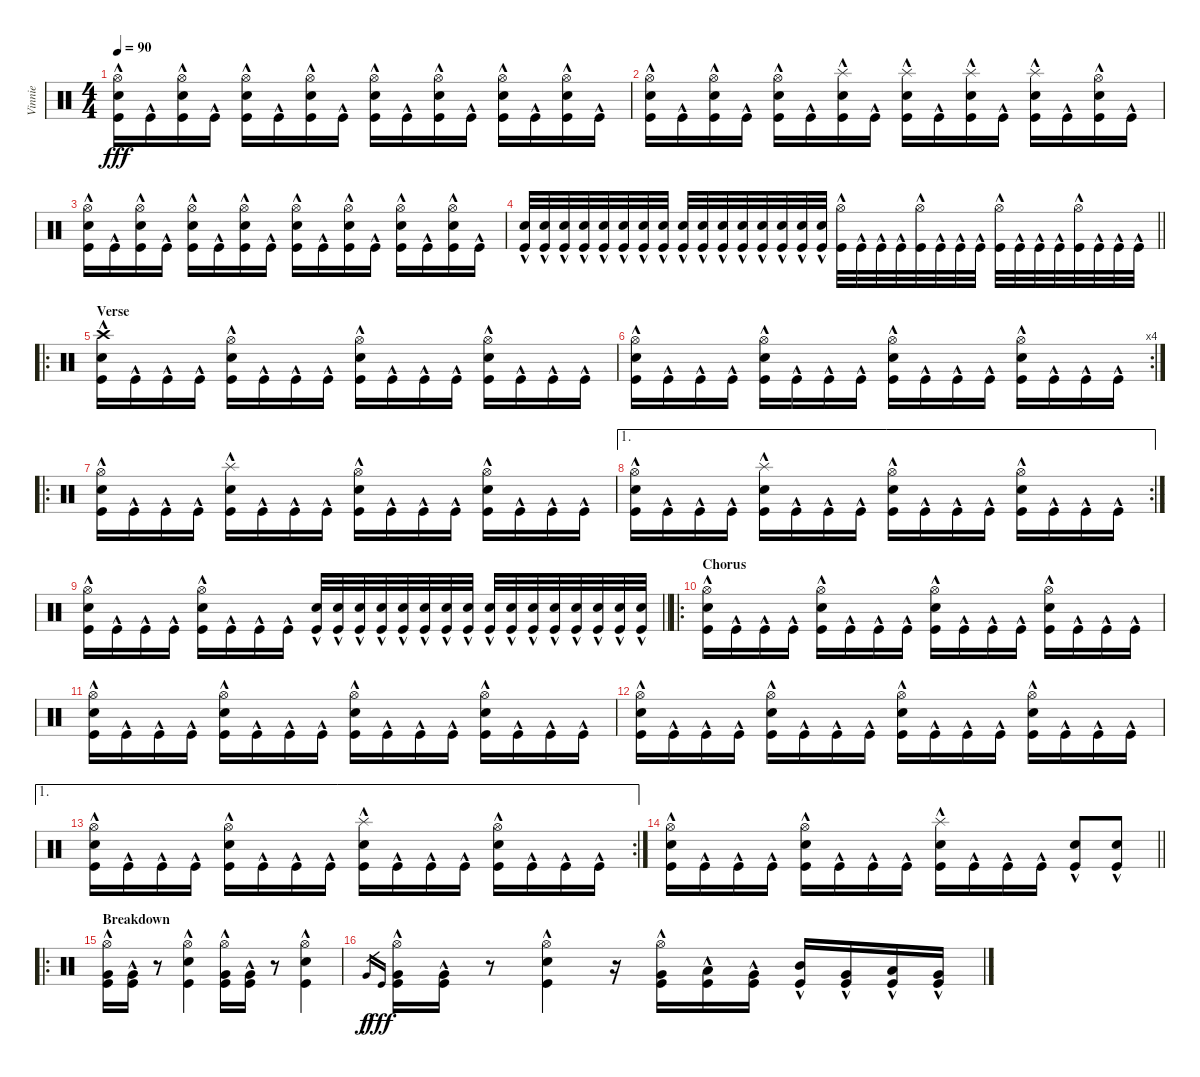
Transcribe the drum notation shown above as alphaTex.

\track ("Vinnie" "Vinnie") {instrument percussion}
\staff {score}
\articulation defaults
\ts (4 4)
\tempo 90
\clef neutral
\ks c
("Hi-Hat (open)" "Electric Snare (hit)" "Kick (hit)"{hac}).16{dy fff} "Kick (hit)"{hac}.16 ("Hi-Hat (open)" "Electric Snare (hit)" "Kick (hit)"{hac}).16 "Kick (hit)"{hac}.16 ("Hi-Hat (open)" "Electric Snare (hit)" "Kick (hit)"{hac}).16 "Kick (hit)"{hac}.16 ("Hi-Hat (open)" "Electric Snare (hit)" "Kick (hit)"{hac}).16 "Kick (hit)"{hac}.16 ("Hi-Hat (open)" "Electric Snare (hit)" "Kick (hit)"{hac}).16 "Kick (hit)"{hac}.16 ("Hi-Hat (open)" "Electric Snare (hit)" "Kick (hit)"{hac}).16 "Kick (hit)"{hac}.16 ("Hi-Hat (open)" "Electric Snare (hit)" "Kick (hit)"{hac}).16 "Kick (hit)"{hac}.16 ("Hi-Hat (open)" "Electric Snare (hit)" "Kick (hit)"{hac}).16 "Kick (hit)"{hac}.16 |
("Hi-Hat (open)" "Electric Snare (hit)" "Kick (hit)"{hac}).16 "Kick (hit)"{hac}.16 ("Hi-Hat (open)" "Electric Snare (hit)" "Kick (hit)"{hac}).16 "Kick (hit)"{hac}.16 ("Hi-Hat (open)" "Electric Snare (hit)" "Kick (hit)"{hac}).16 "Kick (hit)"{hac}.16 ("Splash (hit)"{hac} "Electric Snare (hit)" "Kick (hit)"{hac}).16 "Kick (hit)"{hac}.16 ("Splash (hit)"{hac} "Electric Snare (hit)" "Kick (hit)"{hac}).16 "Kick (hit)"{hac}.16 ("Splash (hit)"{hac} "Electric Snare (hit)" "Kick (hit)"{hac}).16 "Kick (hit)"{hac}.16 ("Splash (hit)"{hac} "Electric Snare (hit)" "Kick (hit)"{hac}).16 "Kick (hit)"{hac}.16 ("Hi-Hat (open)" "Electric Snare (hit)" "Kick (hit)"{hac}).16 "Kick (hit)"{hac}.16 |
("Hi-Hat (open)" "Electric Snare (hit)" "Kick (hit)"{hac}).16 "Kick (hit)"{hac}.16 ("Hi-Hat (open)" "Electric Snare (hit)" "Kick (hit)"{hac}).16 "Kick (hit)"{hac}.16 ("Hi-Hat (open)" "Electric Snare (hit)" "Kick (hit)"{hac}).16 "Kick (hit)"{hac}.16 ("Hi-Hat (open)" "Electric Snare (hit)" "Kick (hit)"{hac}).16 "Kick (hit)"{hac}.16 ("Hi-Hat (open)" "Electric Snare (hit)" "Kick (hit)"{hac}).16 "Kick (hit)"{hac}.16 ("Hi-Hat (open)" "Electric Snare (hit)" "Kick (hit)"{hac}).16 "Kick (hit)"{hac}.16 ("Hi-Hat (open)" "Electric Snare (hit)" "Kick (hit)"{hac}).16 "Kick (hit)"{hac}.16 ("Hi-Hat (open)" "Electric Snare (hit)" "Kick (hit)"{hac}).16 "Kick (hit)"{hac}.16 |
\barLineRight lightlight
("Electric Snare (hit)" "Kick (hit)"{hac}).32 ("Electric Snare (hit)" "Kick (hit)"{hac}).32 ("Electric Snare (hit)" "Kick (hit)"{hac}).32 ("Electric Snare (hit)" "Kick (hit)"{hac}).32 ("Electric Snare (hit)" "Kick (hit)"{hac}).32 ("Electric Snare (hit)" "Kick (hit)"{hac}).32 ("Electric Snare (hit)" "Kick (hit)"{hac}).32 ("Electric Snare (hit)" "Kick (hit)"{hac}).32 ("Electric Snare (hit)" "Kick (hit)"{hac}).32 ("Electric Snare (hit)" "Kick (hit)"{hac}).32 ("Electric Snare (hit)" "Kick (hit)"{hac}).32 ("Electric Snare (hit)" "Kick (hit)"{hac}).32 ("Electric Snare (hit)" "Kick (hit)"{hac}).32 ("Electric Snare (hit)" "Kick (hit)"{hac}).32 ("Electric Snare (hit)" "Kick (hit)"{hac}).32 ("Electric Snare (hit)" "Kick (hit)"{hac}).32 ("Hi-Hat (open)" "Kick (hit)"{hac}).32 "Kick (hit)"{hac}.32 "Kick (hit)"{hac}.32 "Kick (hit)"{hac}.32 ("Hi-Hat (open)" "Kick (hit)"{hac}).32 "Kick (hit)"{hac}.32 "Kick (hit)"{hac}.32 "Kick (hit)"{hac}.32 ("Hi-Hat (open)" "Kick (hit)"{hac}).32 "Kick (hit)"{hac}.32 "Kick (hit)"{hac}.32 "Kick (hit)"{hac}.32 ("Hi-Hat (open)" "Kick (hit)"{hac}).32 "Kick (hit)"{hac}.32 "Kick (hit)"{hac}.32 "Kick (hit)"{hac}.32 |
\ro
\section ("" "Verse")
("Crash high (hit)"{hac} "Electric Snare (hit)" "Kick (hit)"{hac}).16 "Kick (hit)"{hac}.16 "Kick (hit)"{hac}.16 "Kick (hit)"{hac}.16 ("Hi-Hat (open)" "Electric Snare (hit)" "Kick (hit)"{hac}).16 "Kick (hit)"{hac}.16 "Kick (hit)"{hac}.16 "Kick (hit)"{hac}.16 ("Hi-Hat (open)" "Electric Snare (hit)" "Kick (hit)"{hac}).16 "Kick (hit)"{hac}.16 "Kick (hit)"{hac}.16 "Kick (hit)"{hac}.16 ("Hi-Hat (open)" "Electric Snare (hit)" "Kick (hit)"{hac}).16 "Kick (hit)"{hac}.16 "Kick (hit)"{hac}.16 "Kick (hit)"{hac}.16 |
\rc 4
("Hi-Hat (open)"{hac} "Electric Snare (hit)" "Kick (hit)"{hac}).16 "Kick (hit)"{hac}.16 "Kick (hit)"{hac}.16 "Kick (hit)"{hac}.16 ("Hi-Hat (open)" "Electric Snare (hit)" "Kick (hit)"{hac}).16 "Kick (hit)"{hac}.16 "Kick (hit)"{hac}.16 "Kick (hit)"{hac}.16 ("Hi-Hat (open)" "Electric Snare (hit)" "Kick (hit)"{hac}).16 "Kick (hit)"{hac}.16 "Kick (hit)"{hac}.16 "Kick (hit)"{hac}.16 ("Hi-Hat (open)" "Electric Snare (hit)" "Kick (hit)"{hac}).16 "Kick (hit)"{hac}.16 "Kick (hit)"{hac}.16 "Kick (hit)"{hac}.16 |
\ro
("Hi-Hat (open)"{hac} "Electric Snare (hit)" "Kick (hit)"{hac}).16 "Kick (hit)"{hac}.16 "Kick (hit)"{hac}.16 "Kick (hit)"{hac}.16 ("Splash (hit)"{hac} "Electric Snare (hit)" "Kick (hit)"{hac}).16 "Kick (hit)"{hac}.16 "Kick (hit)"{hac}.16 "Kick (hit)"{hac}.16 ("Hi-Hat (open)" "Electric Snare (hit)" "Kick (hit)"{hac}).16 "Kick (hit)"{hac}.16 "Kick (hit)"{hac}.16 "Kick (hit)"{hac}.16 ("Hi-Hat (open)" "Electric Snare (hit)" "Kick (hit)"{hac}).16 "Kick (hit)"{hac}.16 "Kick (hit)"{hac}.16 "Kick (hit)"{hac}.16 |
\ae 1
\rc 2
("Hi-Hat (open)"{hac} "Electric Snare (hit)" "Kick (hit)"{hac}).16 "Kick (hit)"{hac}.16 "Kick (hit)"{hac}.16 "Kick (hit)"{hac}.16 ("Splash (hit)"{hac} "Electric Snare (hit)" "Kick (hit)"{hac}).16 "Kick (hit)"{hac}.16 "Kick (hit)"{hac}.16 "Kick (hit)"{hac}.16 ("Hi-Hat (open)" "Electric Snare (hit)" "Kick (hit)"{hac}).16 "Kick (hit)"{hac}.16 "Kick (hit)"{hac}.16 "Kick (hit)"{hac}.16 ("Hi-Hat (open)" "Electric Snare (hit)" "Kick (hit)"{hac}).16 "Kick (hit)"{hac}.16 "Kick (hit)"{hac}.16 "Kick (hit)"{hac}.16 |
\barLineRight lightlight
("Hi-Hat (open)"{hac} "Electric Snare (hit)" "Kick (hit)"{hac}).16 "Kick (hit)"{hac}.16 "Kick (hit)"{hac}.16 "Kick (hit)"{hac}.16 ("Hi-Hat (open)"{hac} "Electric Snare (hit)" "Kick (hit)"{hac}).16 "Kick (hit)"{hac}.16 "Kick (hit)"{hac}.16 "Kick (hit)"{hac}.16 ("Electric Snare (hit)" "Kick (hit)"{hac}).32 ("Electric Snare (hit)" "Kick (hit)"{hac}).32 ("Electric Snare (hit)" "Kick (hit)"{hac}).32 ("Electric Snare (hit)" "Kick (hit)"{hac}).32 ("Electric Snare (hit)" "Kick (hit)"{hac}).32 ("Electric Snare (hit)" "Kick (hit)"{hac}).32 ("Electric Snare (hit)" "Kick (hit)"{hac}).32 ("Electric Snare (hit)" "Kick (hit)"{hac}).32 ("Electric Snare (hit)" "Kick (hit)"{hac}).32 ("Electric Snare (hit)" "Kick (hit)"{hac}).32 ("Electric Snare (hit)" "Kick (hit)"{hac}).32 ("Electric Snare (hit)" "Kick (hit)"{hac}).32 ("Electric Snare (hit)" "Kick (hit)"{hac}).32 ("Electric Snare (hit)" "Kick (hit)"{hac}).32 ("Electric Snare (hit)" "Kick (hit)"{hac}).32 ("Electric Snare (hit)" "Kick (hit)"{hac}).32 |
\ro
\section ("" "Chorus")
("Hi-Hat (open)"{hac} "Electric Snare (hit)" "Kick (hit)"{hac}).16 "Kick (hit)"{hac}.16 "Kick (hit)"{hac}.16 "Kick (hit)"{hac}.16 ("Hi-Hat (open)" "Electric Snare (hit)" "Kick (hit)"{hac}).16 "Kick (hit)"{hac}.16 "Kick (hit)"{hac}.16 "Kick (hit)"{hac}.16 ("Hi-Hat (open)" "Electric Snare (hit)" "Kick (hit)"{hac}).16 "Kick (hit)"{hac}.16 "Kick (hit)"{hac}.16 "Kick (hit)"{hac}.16 ("Hi-Hat (open)" "Electric Snare (hit)" "Kick (hit)"{hac}).16 "Kick (hit)"{hac}.16 "Kick (hit)"{hac}.16 "Kick (hit)"{hac}.16 |
("Hi-Hat (open)"{hac} "Electric Snare (hit)" "Kick (hit)"{hac}).16 "Kick (hit)"{hac}.16 "Kick (hit)"{hac}.16 "Kick (hit)"{hac}.16 ("Hi-Hat (open)" "Electric Snare (hit)" "Kick (hit)"{hac}).16 "Kick (hit)"{hac}.16 "Kick (hit)"{hac}.16 "Kick (hit)"{hac}.16 ("Hi-Hat (open)" "Electric Snare (hit)" "Kick (hit)"{hac}).16 "Kick (hit)"{hac}.16 "Kick (hit)"{hac}.16 "Kick (hit)"{hac}.16 ("Hi-Hat (open)" "Electric Snare (hit)" "Kick (hit)"{hac}).16 "Kick (hit)"{hac}.16 "Kick (hit)"{hac}.16 "Kick (hit)"{hac}.16 |
("Hi-Hat (open)"{hac} "Electric Snare (hit)" "Kick (hit)"{hac}).16 "Kick (hit)"{hac}.16 "Kick (hit)"{hac}.16 "Kick (hit)"{hac}.16 ("Hi-Hat (open)" "Electric Snare (hit)" "Kick (hit)"{hac}).16 "Kick (hit)"{hac}.16 "Kick (hit)"{hac}.16 "Kick (hit)"{hac}.16 ("Hi-Hat (open)" "Electric Snare (hit)" "Kick (hit)"{hac}).16 "Kick (hit)"{hac}.16 "Kick (hit)"{hac}.16 "Kick (hit)"{hac}.16 ("Hi-Hat (open)" "Electric Snare (hit)" "Kick (hit)"{hac}).16 "Kick (hit)"{hac}.16 "Kick (hit)"{hac}.16 "Kick (hit)"{hac}.16 |
\ae 1
\rc 2
("Hi-Hat (open)"{hac} "Electric Snare (hit)" "Kick (hit)"{hac}).16 "Kick (hit)"{hac}.16 "Kick (hit)"{hac}.16 "Kick (hit)"{hac}.16 ("Hi-Hat (open)" "Electric Snare (hit)" "Kick (hit)"{hac}).16 "Kick (hit)"{hac}.16 "Kick (hit)"{hac}.16 "Kick (hit)"{hac}.16 ("Splash (hit)" "Electric Snare (hit)" "Kick (hit)"{hac}).16 "Kick (hit)"{hac}.16 "Kick (hit)"{hac}.16 "Kick (hit)"{hac}.16 ("Hi-Hat (open)" "Electric Snare (hit)" "Kick (hit)"{hac}).16 "Kick (hit)"{hac}.16 "Kick (hit)"{hac}.16 "Kick (hit)"{hac}.16 |
\barLineRight lightlight
("Hi-Hat (open)"{hac} "Electric Snare (hit)" "Kick (hit)"{hac}).16 "Kick (hit)"{hac}.16 "Kick (hit)"{hac}.16 "Kick (hit)"{hac}.16 ("Hi-Hat (open)" "Electric Snare (hit)" "Kick (hit)"{hac}).16 "Kick (hit)"{hac}.16 "Kick (hit)"{hac}.16 "Kick (hit)"{hac}.16 ("Splash (hit)" "Electric Snare (hit)" "Kick (hit)"{hac}).16 "Kick (hit)"{hac}.16 "Kick (hit)"{hac}.16 "Kick (hit)"{hac}.16 ("Electric Snare (hit)"{hac} "Kick (hit)"{hac}).8 ("Electric Snare (hit)"{hac} "Kick (hit)"{hac}).8 |
\ro
\section ("" "Breakdown")
("Hi-Hat (open)" "Very Low Tom (hit)" "Kick (hit)"{hac}).16 ("Very Low Tom (hit)" "Kick (hit)"{hac}).16 r.8 ("Hi-Hat (open)" "Electric Snare (hit)" "Kick (hit)"{hac}).4 ("Hi-Hat (open)" "Very Low Tom (hit)" "Kick (hit)"{hac}).16 ("Very Low Tom (hit)" "Kick (hit)"{hac}).16 r.8 ("Hi-Hat (open)" "Electric Snare (hit)" "Kick (hit)"{hac}).4 |
"Very Low Tom (hit)".16{gr dy f} "Kick (hit)".16{gr dy fff} ("Hi-Hat (open)" "Very Low Tom (hit)" "Kick (hit)"{hac}).16 ("Very Low Tom (hit)" "Kick (hit)"{hac}).16 r.8 ("Hi-Hat (open)" "Electric Snare (hit)" "Kick (hit)"{hac}).4 r.16 ("Hi-Hat (open)" "Very Low Tom (hit)" "Kick (hit)"{hac}).16 ("Low Tom (hit)" "Kick (hit)"{hac}).16 ("Very Low Tom (hit)" "Kick (hit)"{hac}).16 ("Mid Tom (hit)" "Kick (hit)"{hac}).16 ("Very Low Tom (hit)" "Kick (hit)"{hac}).16 ("Low Tom (hit)" "Kick (hit)"{hac}).16 ("Very Low Tom (hit)" "Kick (hit)"{hac}).16
